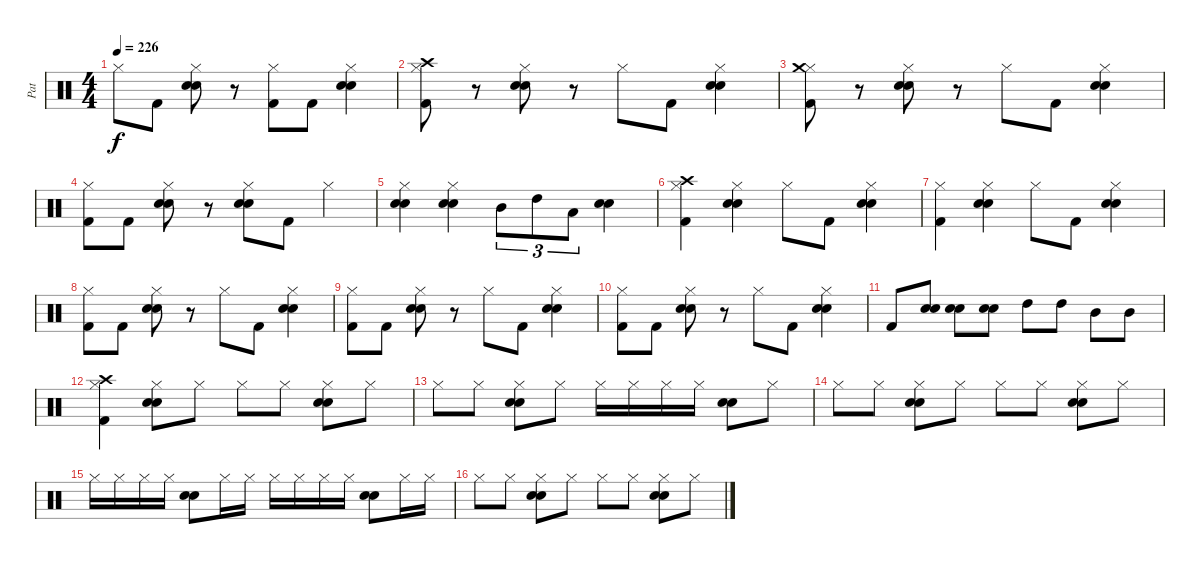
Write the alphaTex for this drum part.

\track ("Pat" "Pat") {instrument percussion}
\staff {score}
\articulation defaults
\ts (4 4)
\tempo 226
\clef neutral
\ks c "Hi-Hat (closed)".8{dy f} "Kick (hit) 2".8
("Hi-Hat (closed)" "Snare (hit) 2" "Electric Snare (hit)").8 r.8 ("Hi-Hat (closed)" "Kick (hit) 2").8 "Kick (hit) 2".8 ("Hi-Hat (closed)" "Snare (hit) 2" "Electric Snare (hit)").4 |
("Hi-Hat (closed)" "Crash high (hit)" "Kick (hit) 2").8 r.8 ("Hi-Hat (closed)" "Snare (hit) 2" "Electric Snare (hit)").8 r.8 "Hi-Hat (closed)".8 "Kick (hit) 2".8 ("Hi-Hat (closed)" "Snare (hit) 2" "Electric Snare (hit)").4 |
("Hi-Hat (closed)" "Crash medium (hit)" "Kick (hit) 2").8 r.8 ("Hi-Hat (closed)" "Snare (hit) 2" "Electric Snare (hit)").8 r.8 "Hi-Hat (closed)".8 "Kick (hit) 2".8 ("Hi-Hat (closed)" "Snare (hit) 2" "Electric Snare (hit)").4 |
("Hi-Hat (closed)" "Kick (hit) 2").8 "Kick (hit) 2".8 ("Hi-Hat (closed)" "Snare (hit) 2" "Electric Snare (hit)").8 r.8 ("Hi-Hat (closed)" "Snare (hit) 2" "Electric Snare (hit)").8 "Kick (hit) 2".8 "Hi-Hat (closed)".4 |
("Hi-Hat (closed)" "Snare (hit) 2" "Electric Snare (hit)").4 ("Hi-Hat (closed)" "Snare (hit) 2" "Electric Snare (hit)").4 "Mid Tom (hit)".8{tu (3 2)} "High Tom (hit)".8{tu (3 2)} "Low Tom (hit)".8{tu (3 2)} ("Snare (hit) 2" "Electric Snare (hit)").4 |
("Hi-Hat (closed)" "Crash high (hit)" "Kick (hit) 2").4 ("Hi-Hat (closed)" "Snare (hit) 2" "Electric Snare (hit)").4 "Hi-Hat (closed)".8 "Kick (hit) 2".8 ("Hi-Hat (closed)" "Snare (hit) 2" "Electric Snare (hit)").4 |
("Hi-Hat (closed)" "Kick (hit) 2").4 ("Hi-Hat (closed)" "Snare (hit) 2" "Electric Snare (hit)").4 "Hi-Hat (closed)".8 "Kick (hit) 2".8 ("Hi-Hat (closed)" "Snare (hit) 2" "Electric Snare (hit)").4 |
("Hi-Hat (closed)" "Kick (hit) 2").8 "Kick (hit) 2".8 ("Hi-Hat (closed)" "Snare (hit) 2" "Electric Snare (hit)").8 r.8 "Hi-Hat (closed)".8 "Kick (hit) 2".8 ("Hi-Hat (closed)" "Snare (hit) 2" "Electric Snare (hit)").4 |
("Hi-Hat (closed)" "Kick (hit) 2").8 "Kick (hit) 2".8 ("Hi-Hat (closed)" "Snare (hit) 2" "Electric Snare (hit)").8 r.8 "Hi-Hat (closed)".8 "Kick (hit) 2".8 ("Hi-Hat (closed)" "Snare (hit) 2" "Electric Snare (hit)").4 |
("Hi-Hat (closed)" "Kick (hit) 2").8 "Kick (hit) 2".8 ("Hi-Hat (closed)" "Snare (hit) 2" "Electric Snare (hit)").8 r.8 "Hi-Hat (closed)".8 "Kick (hit) 2".8 ("Hi-Hat (closed)" "Snare (hit) 2" "Electric Snare (hit)").4 |
"Kick (hit) 2".8 ("Snare (hit) 2" "Electric Snare (hit)").8 ("Snare (hit) 2" "Electric Snare (hit)").8 ("Snare (hit) 2" "Electric Snare (hit)").8 "High Tom (hit)".8 "High Tom (hit)".8 "Mid Tom (hit)".8 "Mid Tom (hit)".8 |
("Hi-Hat (closed)" "Crash high (hit)" "Kick (hit) 2").4 ("Hi-Hat (closed)" "Snare (hit) 2" "Electric Snare (hit)").8 "Hi-Hat (closed)".8 "Hi-Hat (closed)".8 "Hi-Hat (closed)".8 ("Hi-Hat (closed)" "Snare (hit) 2" "Electric Snare (hit)").8 "Hi-Hat (closed)".8 |
"Hi-Hat (closed)".8 "Hi-Hat (closed)".8 ("Hi-Hat (closed)" "Snare (hit) 2" "Electric Snare (hit)").8 "Hi-Hat (closed)".8 "Hi-Hat (closed)".16 "Hi-Hat (closed)".16 "Hi-Hat (closed)".16 "Hi-Hat (closed)".16 ("Snare (hit) 2" "Electric Snare (hit)").8 "Hi-Hat (closed)".8 |
"Hi-Hat (closed)".8 "Hi-Hat (closed)".8 ("Hi-Hat (closed)" "Snare (hit) 2" "Electric Snare (hit)").8 "Hi-Hat (closed)".8 "Hi-Hat (closed)".8 "Hi-Hat (closed)".8 ("Hi-Hat (closed)" "Snare (hit) 2" "Electric Snare (hit)").8 "Hi-Hat (closed)".8 |
"Hi-Hat (closed)".16 "Hi-Hat (closed)".16 "Hi-Hat (closed)".16 "Hi-Hat (closed)".16 ("Snare (hit) 2" "Electric Snare (hit)").8 "Hi-Hat (closed)".16 "Hi-Hat (closed)".16 "Hi-Hat (closed)".16 "Hi-Hat (closed)".16 "Hi-Hat (closed)".16 "Hi-Hat (closed)".16 ("Snare (hit) 2" "Electric Snare (hit)").8 "Hi-Hat (closed)".16 "Hi-Hat (closed)".16 |
"Hi-Hat (closed)".8 "Hi-Hat (closed)".8 ("Hi-Hat (closed)" "Snare (hit) 2" "Electric Snare (hit)").8 "Hi-Hat (closed)".8 "Hi-Hat (closed)".8 "Hi-Hat (closed)".8 ("Hi-Hat (closed)" "Snare (hit) 2" "Electric Snare (hit)").8 "Hi-Hat (closed)".8
